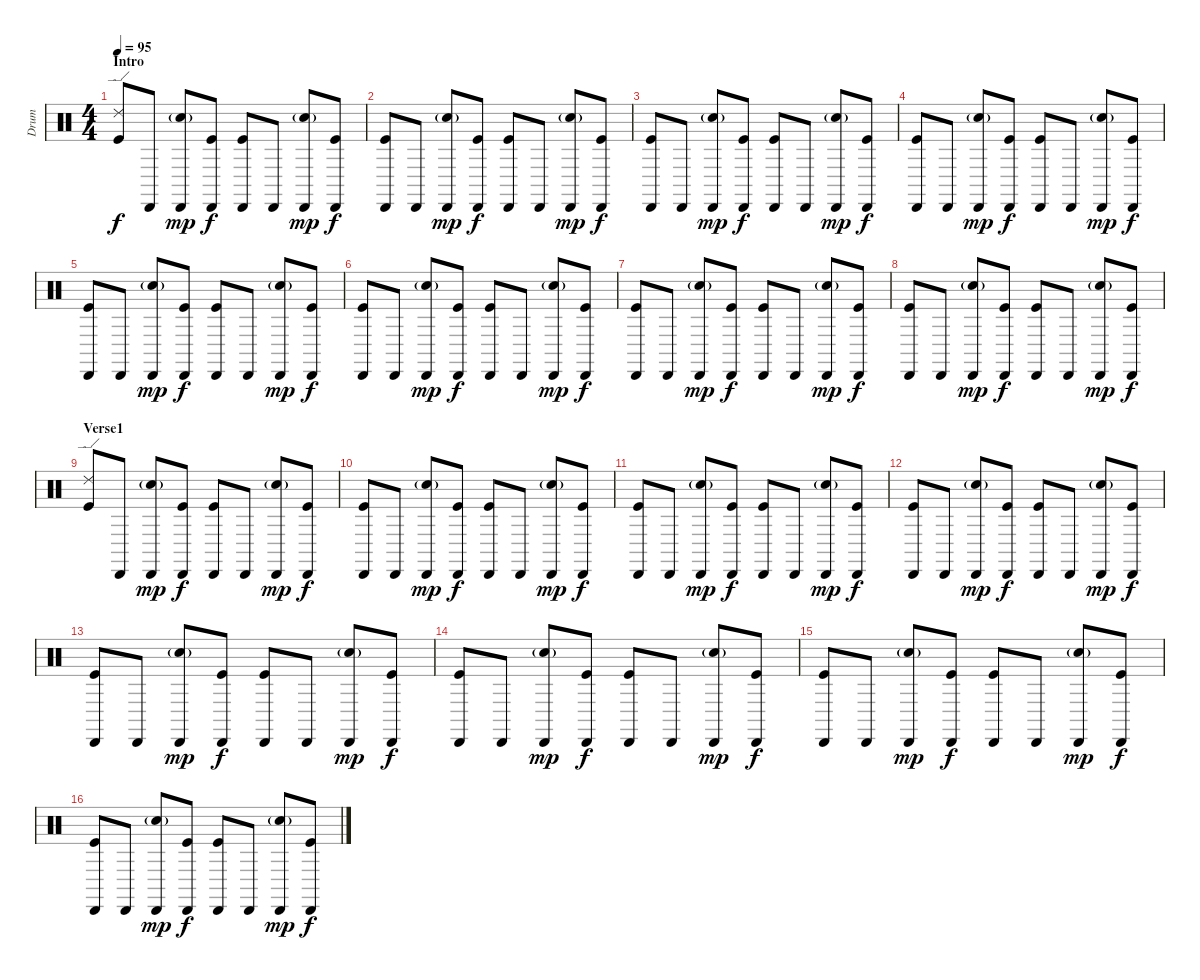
\track ("Drum" "Drum") {instrument percussion}
\staff {score}
\articulation defaults
\ts (4 4)
\section ("" "Intro")
\tempo 95
\clef neutral
\ks c
("Ride (edge) 2" "Kick (hit)").8{dy f} "Cabasa (hit)".8 ("Cabasa (hit)" "Electric Snare (hit)"{g}).8{dy mp} ("Cabasa (hit)" "Kick (hit)").8{dy f} ("Cabasa (hit)" "Kick (hit)").8 "Cabasa (hit)".8 ("Cabasa (hit)" "Electric Snare (hit)"{g}).8{dy mp} ("Cabasa (hit)" "Kick (hit)").8{dy f} |
\section ("" "")
("Cabasa (hit)" "Kick (hit)").8 "Cabasa (hit)".8 ("Cabasa (hit)" "Electric Snare (hit)"{g}).8{dy mp} ("Cabasa (hit)" "Kick (hit)").8{dy f} ("Cabasa (hit)" "Kick (hit)").8 "Cabasa (hit)".8 ("Cabasa (hit)" "Electric Snare (hit)"{g}).8{dy mp} ("Cabasa (hit)" "Kick (hit)").8{dy f} |
("Cabasa (hit)" "Kick (hit)").8 "Cabasa (hit)".8 ("Cabasa (hit)" "Electric Snare (hit)"{g}).8{dy mp} ("Cabasa (hit)" "Kick (hit)").8{dy f} ("Cabasa (hit)" "Kick (hit)").8 "Cabasa (hit)".8 ("Cabasa (hit)" "Electric Snare (hit)"{g}).8{dy mp} ("Cabasa (hit)" "Kick (hit)").8{dy f} |
("Cabasa (hit)" "Kick (hit)").8 "Cabasa (hit)".8 ("Cabasa (hit)" "Electric Snare (hit)"{g}).8{dy mp} ("Cabasa (hit)" "Kick (hit)").8{dy f} ("Cabasa (hit)" "Kick (hit)").8 "Cabasa (hit)".8 ("Cabasa (hit)" "Electric Snare (hit)"{g}).8{dy mp} ("Cabasa (hit)" "Kick (hit)").8{dy f} |
("Cabasa (hit)" "Kick (hit)").8 "Cabasa (hit)".8 ("Cabasa (hit)" "Electric Snare (hit)"{g}).8{dy mp} ("Cabasa (hit)" "Kick (hit)").8{dy f} ("Cabasa (hit)" "Kick (hit)").8 "Cabasa (hit)".8 ("Cabasa (hit)" "Electric Snare (hit)"{g}).8{dy mp} ("Cabasa (hit)" "Kick (hit)").8{dy f} |
("Cabasa (hit)" "Kick (hit)").8 "Cabasa (hit)".8 ("Cabasa (hit)" "Electric Snare (hit)"{g}).8{dy mp} ("Cabasa (hit)" "Kick (hit)").8{dy f} ("Cabasa (hit)" "Kick (hit)").8 "Cabasa (hit)".8 ("Cabasa (hit)" "Electric Snare (hit)"{g}).8{dy mp} ("Cabasa (hit)" "Kick (hit)").8{dy f} |
("Cabasa (hit)" "Kick (hit)").8 "Cabasa (hit)".8 ("Cabasa (hit)" "Electric Snare (hit)"{g}).8{dy mp} ("Cabasa (hit)" "Kick (hit)").8{dy f} ("Cabasa (hit)" "Kick (hit)").8 "Cabasa (hit)".8 ("Cabasa (hit)" "Electric Snare (hit)"{g}).8{dy mp} ("Cabasa (hit)" "Kick (hit)").8{dy f} |
("Cabasa (hit)" "Kick (hit)").8 "Cabasa (hit)".8 ("Cabasa (hit)" "Electric Snare (hit)"{g}).8{dy mp} ("Cabasa (hit)" "Kick (hit)").8{dy f} ("Cabasa (hit)" "Kick (hit)").8 "Cabasa (hit)".8 ("Cabasa (hit)" "Electric Snare (hit)"{g}).8{dy mp} ("Cabasa (hit)" "Kick (hit)").8{dy f} |
\section ("" "Verse1")
("Ride (edge) 2" "Kick (hit)").8 "Cabasa (hit)".8 ("Cabasa (hit)" "Electric Snare (hit)"{g}).8{dy mp} ("Cabasa (hit)" "Kick (hit)").8{dy f} ("Cabasa (hit)" "Kick (hit)").8 "Cabasa (hit)".8 ("Cabasa (hit)" "Electric Snare (hit)"{g}).8{dy mp} ("Cabasa (hit)" "Kick (hit)").8{dy f} |
("Cabasa (hit)" "Kick (hit)").8 "Cabasa (hit)".8 ("Cabasa (hit)" "Electric Snare (hit)"{g}).8{dy mp} ("Cabasa (hit)" "Kick (hit)").8{dy f} ("Cabasa (hit)" "Kick (hit)").8 "Cabasa (hit)".8 ("Cabasa (hit)" "Electric Snare (hit)"{g}).8{dy mp} ("Cabasa (hit)" "Kick (hit)").8{dy f} |
("Cabasa (hit)" "Kick (hit)").8 "Cabasa (hit)".8 ("Cabasa (hit)" "Electric Snare (hit)"{g}).8{dy mp} ("Cabasa (hit)" "Kick (hit)").8{dy f} ("Cabasa (hit)" "Kick (hit)").8 "Cabasa (hit)".8 ("Cabasa (hit)" "Electric Snare (hit)"{g}).8{dy mp} ("Cabasa (hit)" "Kick (hit)").8{dy f} |
("Cabasa (hit)" "Kick (hit)").8 "Cabasa (hit)".8 ("Cabasa (hit)" "Electric Snare (hit)"{g}).8{dy mp} ("Cabasa (hit)" "Kick (hit)").8{dy f} ("Cabasa (hit)" "Kick (hit)").8 "Cabasa (hit)".8 ("Cabasa (hit)" "Electric Snare (hit)"{g}).8{dy mp} ("Cabasa (hit)" "Kick (hit)").8{dy f} |
("Cabasa (hit)" "Kick (hit)").8 "Cabasa (hit)".8 ("Cabasa (hit)" "Electric Snare (hit)"{g}).8{dy mp} ("Cabasa (hit)" "Kick (hit)").8{dy f} ("Cabasa (hit)" "Kick (hit)").8 "Cabasa (hit)".8 ("Cabasa (hit)" "Electric Snare (hit)"{g}).8{dy mp} ("Cabasa (hit)" "Kick (hit)").8{dy f} |
("Cabasa (hit)" "Kick (hit)").8 "Cabasa (hit)".8 ("Cabasa (hit)" "Electric Snare (hit)"{g}).8{dy mp} ("Cabasa (hit)" "Kick (hit)").8{dy f} ("Cabasa (hit)" "Kick (hit)").8 "Cabasa (hit)".8 ("Cabasa (hit)" "Electric Snare (hit)"{g}).8{dy mp} ("Cabasa (hit)" "Kick (hit)").8{dy f} |
("Cabasa (hit)" "Kick (hit)").8 "Cabasa (hit)".8 ("Cabasa (hit)" "Electric Snare (hit)"{g}).8{dy mp} ("Cabasa (hit)" "Kick (hit)").8{dy f} ("Cabasa (hit)" "Kick (hit)").8 "Cabasa (hit)".8 ("Cabasa (hit)" "Electric Snare (hit)"{g}).8{dy mp} ("Cabasa (hit)" "Kick (hit)").8{dy f} |
("Cabasa (hit)" "Kick (hit)").8 "Cabasa (hit)".8 ("Cabasa (hit)" "Electric Snare (hit)"{g}).8{dy mp} ("Cabasa (hit)" "Kick (hit)").8{dy f} ("Cabasa (hit)" "Kick (hit)").8 "Cabasa (hit)".8 ("Cabasa (hit)" "Electric Snare (hit)"{g}).8{dy mp} ("Cabasa (hit)" "Kick (hit)").8{dy f}
